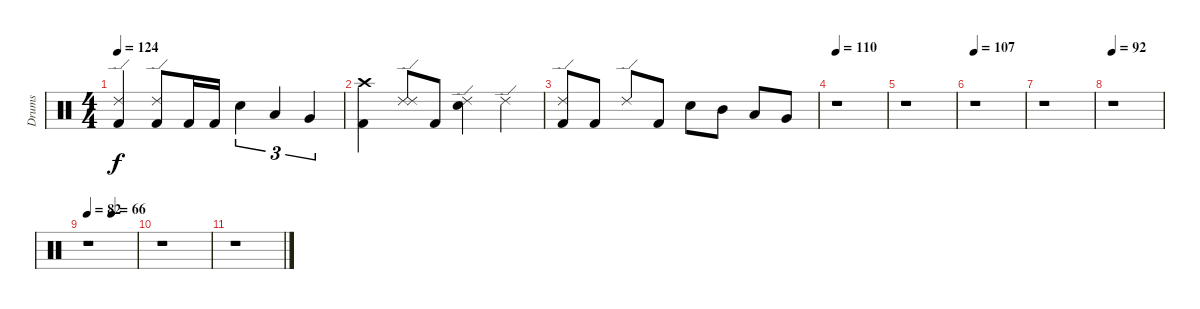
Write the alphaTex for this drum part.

\track ("Drums" "Drums") {instrument percussion}
\staff {score}
\articulation defaults
\ts (4 4)
\tempo 124
\clef neutral
\ks c
("Kick (hit) 2" "Ride (edge) 2").4{dy f} ("Kick (hit) 2" "Ride (edge) 2").8 "Kick (hit) 2".16 "Kick (hit) 2".16 "Electric Snare (hit)".4{tu (3 2)} "Low Tom (hit)".4{tu (3 2)} "Very Low Tom (hit)".4{tu (3 2)} |
("Kick (hit) 2" "Crash high (hit)").4 ("Ride (edge) 2" "Ride (edge) 2").8 "Kick (hit) 2".8 ("Electric Snare (hit)" "Ride (edge) 2").4 "Ride (edge) 2".4 |
("Kick (hit) 2" "Ride (edge) 2").8 "Kick (hit) 2".8 "Ride (edge) 2".8 "Kick (hit) 2".8 "Electric Snare (hit)".8 "Mid Tom (hit)".8 "Low Tom (hit)".8 "Very Low Tom (hit)".8 |
\tempo 110
r.1 |
r.1 |
\tempo 107
r.1 |
r.1 |
\tempo 92
r.1 |
\tempo 82
\tempo (66 0.5)
r.1 |
r.1 |
r.1
